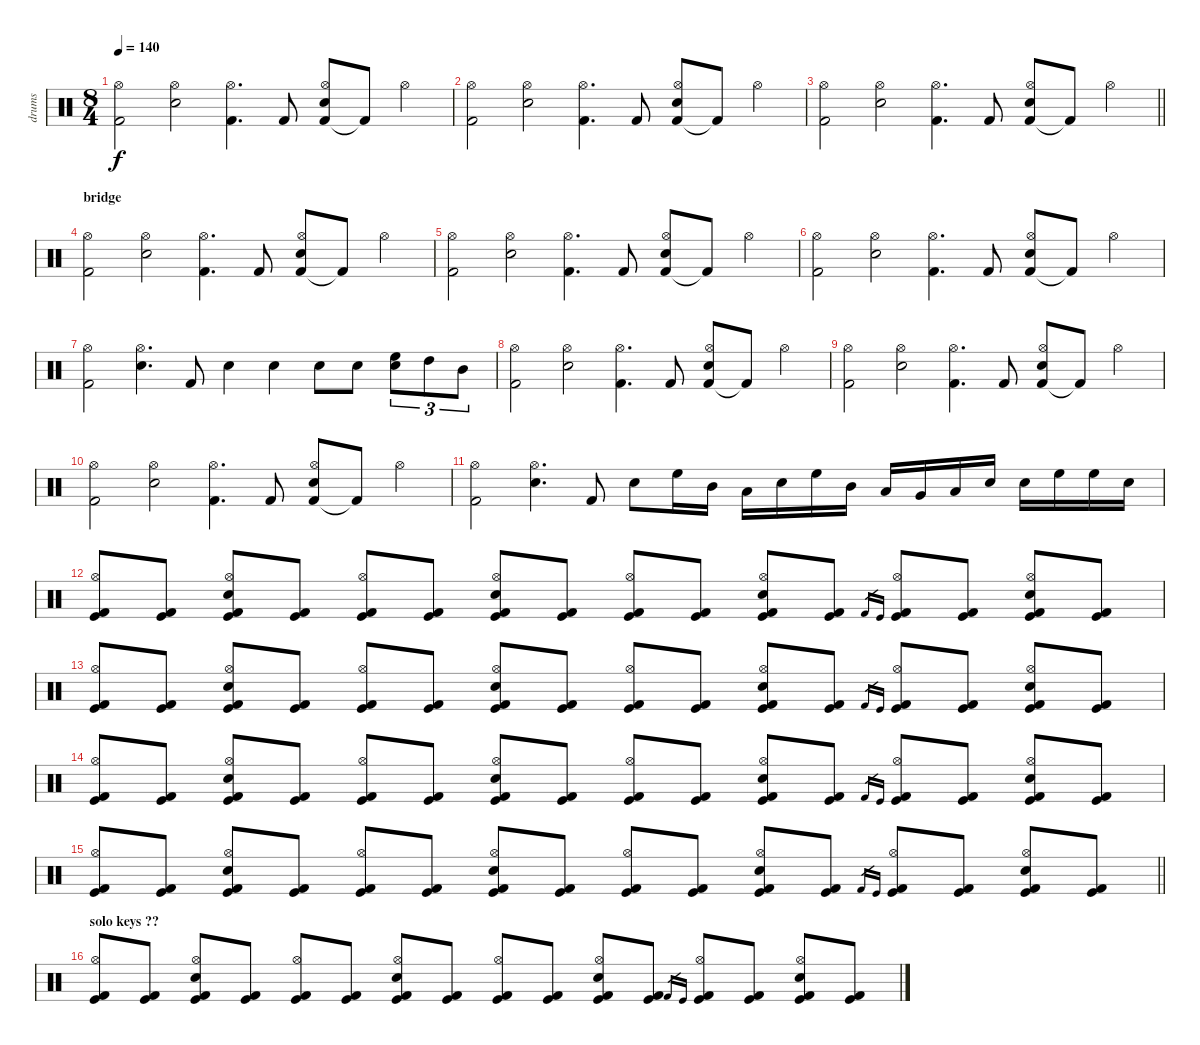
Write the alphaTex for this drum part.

\track ("drums" "drums") {instrument percussion}
\staff {score}
\articulation defaults
\ts (8 4)
\tempo 140
\clef neutral
\ks c
("Kick (hit) 2" "Hi-Hat (open)").2{dy f} ("Electric Snare (hit)" "Hi-Hat (open)").2 ("Kick (hit) 2" "Hi-Hat (open)").4{d} "Kick (hit) 2".8 ("Kick (hit) 2" "Electric Snare (hit)" "Hi-Hat (open)").8 "Kick (hit) 2"{t}.8 "Hi-Hat (open)".4 |
("Kick (hit) 2" "Hi-Hat (open)").2 ("Electric Snare (hit)" "Hi-Hat (open)").2 ("Kick (hit) 2" "Hi-Hat (open)").4{d} "Kick (hit) 2".8 ("Kick (hit) 2" "Electric Snare (hit)" "Hi-Hat (open)").8 "Kick (hit) 2"{t}.8 "Hi-Hat (open)".4 |
\barLineRight lightlight
("Kick (hit) 2" "Hi-Hat (open)").2 ("Electric Snare (hit)" "Hi-Hat (open)").2 ("Kick (hit) 2" "Hi-Hat (open)").4{d} "Kick (hit) 2".8 ("Kick (hit) 2" "Electric Snare (hit)" "Hi-Hat (open)").8 "Kick (hit) 2"{t}.8 "Hi-Hat (open)".4 |
\section ("" "bridge")
("Kick (hit) 2" "Hi-Hat (open)").2 ("Electric Snare (hit)" "Hi-Hat (open)").2 ("Kick (hit) 2" "Hi-Hat (open)").4{d} "Kick (hit) 2".8 ("Kick (hit) 2" "Electric Snare (hit)" "Hi-Hat (open)").8 "Kick (hit) 2"{t}.8 "Hi-Hat (open)".4 |
("Kick (hit) 2" "Hi-Hat (open)").2 ("Electric Snare (hit)" "Hi-Hat (open)").2 ("Kick (hit) 2" "Hi-Hat (open)").4{d} "Kick (hit) 2".8 ("Kick (hit) 2" "Electric Snare (hit)" "Hi-Hat (open)").8 "Kick (hit) 2"{t}.8 "Hi-Hat (open)".4 |
("Kick (hit) 2" "Hi-Hat (open)").2 ("Electric Snare (hit)" "Hi-Hat (open)").2 ("Kick (hit) 2" "Hi-Hat (open)").4{d} "Kick (hit) 2".8 ("Kick (hit) 2" "Electric Snare (hit)" "Hi-Hat (open)").8 "Kick (hit) 2"{t}.8 "Hi-Hat (open)".4 |
("Kick (hit) 2" "Hi-Hat (open)").2 ("Electric Snare (hit)" "Hi-Hat (open)").4{d} "Kick (hit) 2".8 "Snare (hit) 2".4 "Snare (hit) 2".4 "Snare (hit) 2".8 "Snare (hit) 2".8 ("Snare (hit) 2" "High Floor Tom (hit)").8{tu (3 2)} "High Tom (hit)".8{tu (3 2)} "Mid Tom (hit)".8{tu (3 2)} |
("Kick (hit) 2" "Hi-Hat (open)").2 ("Electric Snare (hit)" "Hi-Hat (open)").2 ("Kick (hit) 2" "Hi-Hat (open)").4{d} "Kick (hit) 2".8 ("Kick (hit) 2" "Electric Snare (hit)" "Hi-Hat (open)").8 "Kick (hit) 2"{t}.8 "Hi-Hat (open)".4 |
("Kick (hit) 2" "Hi-Hat (open)").2 ("Electric Snare (hit)" "Hi-Hat (open)").2 ("Kick (hit) 2" "Hi-Hat (open)").4{d} "Kick (hit) 2".8 ("Kick (hit) 2" "Electric Snare (hit)" "Hi-Hat (open)").8 "Kick (hit) 2"{t}.8 "Hi-Hat (open)".4 |
("Kick (hit) 2" "Hi-Hat (open)").2 ("Electric Snare (hit)" "Hi-Hat (open)").2 ("Kick (hit) 2" "Hi-Hat (open)").4{d} "Kick (hit) 2".8 ("Kick (hit) 2" "Electric Snare (hit)" "Hi-Hat (open)").8 "Kick (hit) 2"{t}.8 "Hi-Hat (open)".4 |
("Kick (hit) 2" "Hi-Hat (open)").2 ("Electric Snare (hit)" "Hi-Hat (open)").4{d} "Kick (hit) 2".8 "Snare (hit) 2".8 "High Floor Tom (hit)".16 "Mid Tom (hit)".16 "Low Tom (hit)".16 "Snare (hit) 2".16 "High Floor Tom (hit)".16 "Mid Tom (hit)".16 "Low Tom (hit)".16 "Very Low Tom (hit)".16 "Low Floor Tom (hit)".16 "Snare (hit) 2".16 "Snare (hit) 2".16 "High Floor Tom (hit)".16 "High Floor Tom (hit)".16 "Snare (hit) 2".16 |
("Kick (hit) 2" "Kick (hit)" "Hi-Hat (open)").8 ("Kick (hit) 2" "Kick (hit)").8 ("Kick (hit) 2" "Kick (hit)" "Snare (hit) 2" "Hi-Hat (open)").8 ("Kick (hit) 2" "Kick (hit)").8 ("Kick (hit) 2" "Kick (hit)" "Hi-Hat (open)").8 ("Kick (hit) 2" "Kick (hit)").8 ("Kick (hit) 2" "Kick (hit)" "Snare (hit) 2" "Hi-Hat (open)").8 ("Kick (hit) 2" "Kick (hit)").8 ("Kick (hit) 2" "Kick (hit)" "Hi-Hat (open)").8 ("Kick (hit) 2" "Kick (hit)").8 ("Kick (hit) 2" "Kick (hit)" "Snare (hit) 2" "Hi-Hat (open)").8 ("Kick (hit) 2" "Kick (hit)").8 "Kick (hit) 2".16{gr} "Kick (hit)".16{gr} ("Kick (hit) 2" "Kick (hit)" "Hi-Hat (open)").8 ("Kick (hit) 2" "Kick (hit)").8 ("Kick (hit) 2" "Kick (hit)" "Snare (hit) 2" "Hi-Hat (open)").8 ("Kick (hit) 2" "Kick (hit)").8 |
("Kick (hit) 2" "Kick (hit)" "Hi-Hat (open)").8 ("Kick (hit) 2" "Kick (hit)").8 ("Kick (hit) 2" "Kick (hit)" "Snare (hit) 2" "Hi-Hat (open)").8 ("Kick (hit) 2" "Kick (hit)").8 ("Kick (hit) 2" "Kick (hit)" "Hi-Hat (open)").8 ("Kick (hit) 2" "Kick (hit)").8 ("Kick (hit) 2" "Kick (hit)" "Snare (hit) 2" "Hi-Hat (open)").8 ("Kick (hit) 2" "Kick (hit)").8 ("Kick (hit) 2" "Kick (hit)" "Hi-Hat (open)").8 ("Kick (hit) 2" "Kick (hit)").8 ("Kick (hit) 2" "Kick (hit)" "Snare (hit) 2" "Hi-Hat (open)").8 ("Kick (hit) 2" "Kick (hit)").8 "Kick (hit) 2".16{gr} "Kick (hit)".16{gr} ("Kick (hit) 2" "Kick (hit)" "Hi-Hat (open)").8 ("Kick (hit) 2" "Kick (hit)").8 ("Kick (hit) 2" "Kick (hit)" "Snare (hit) 2" "Hi-Hat (open)").8 ("Kick (hit) 2" "Kick (hit)").8 |
("Kick (hit) 2" "Kick (hit)" "Hi-Hat (open)").8 ("Kick (hit) 2" "Kick (hit)").8 ("Kick (hit) 2" "Kick (hit)" "Snare (hit) 2" "Hi-Hat (open)").8 ("Kick (hit) 2" "Kick (hit)").8 ("Kick (hit) 2" "Kick (hit)" "Hi-Hat (open)").8 ("Kick (hit) 2" "Kick (hit)").8 ("Kick (hit) 2" "Kick (hit)" "Snare (hit) 2" "Hi-Hat (open)").8 ("Kick (hit) 2" "Kick (hit)").8 ("Kick (hit) 2" "Kick (hit)" "Hi-Hat (open)").8 ("Kick (hit) 2" "Kick (hit)").8 ("Kick (hit) 2" "Kick (hit)" "Snare (hit) 2" "Hi-Hat (open)").8 ("Kick (hit) 2" "Kick (hit)").8 "Kick (hit) 2".16{gr} "Kick (hit)".16{gr} ("Kick (hit) 2" "Kick (hit)" "Hi-Hat (open)").8 ("Kick (hit) 2" "Kick (hit)").8 ("Kick (hit) 2" "Kick (hit)" "Snare (hit) 2" "Hi-Hat (open)").8 ("Kick (hit) 2" "Kick (hit)").8 |
\barLineRight lightlight
("Kick (hit) 2" "Kick (hit)" "Hi-Hat (open)").8 ("Kick (hit) 2" "Kick (hit)").8 ("Kick (hit) 2" "Kick (hit)" "Snare (hit) 2" "Hi-Hat (open)").8 ("Kick (hit) 2" "Kick (hit)").8 ("Kick (hit) 2" "Kick (hit)" "Hi-Hat (open)").8 ("Kick (hit) 2" "Kick (hit)").8 ("Kick (hit) 2" "Kick (hit)" "Snare (hit) 2" "Hi-Hat (open)").8 ("Kick (hit) 2" "Kick (hit)").8 ("Kick (hit) 2" "Kick (hit)" "Hi-Hat (open)").8 ("Kick (hit) 2" "Kick (hit)").8 ("Kick (hit) 2" "Kick (hit)" "Snare (hit) 2" "Hi-Hat (open)").8 ("Kick (hit) 2" "Kick (hit)").8 "Kick (hit) 2".16{gr} "Kick (hit)".16{gr} ("Kick (hit) 2" "Kick (hit)" "Hi-Hat (open)").8 ("Kick (hit) 2" "Kick (hit)").8 ("Kick (hit) 2" "Kick (hit)" "Snare (hit) 2" "Hi-Hat (open)").8 ("Kick (hit) 2" "Kick (hit)").8 |
\section ("" "solo keys ??")
("Kick (hit) 2" "Kick (hit)" "Hi-Hat (open)").8 ("Kick (hit) 2" "Kick (hit)").8 ("Kick (hit) 2" "Kick (hit)" "Snare (hit) 2" "Hi-Hat (open)").8 ("Kick (hit) 2" "Kick (hit)").8 ("Kick (hit) 2" "Kick (hit)" "Hi-Hat (open)").8 ("Kick (hit) 2" "Kick (hit)").8 ("Kick (hit) 2" "Kick (hit)" "Snare (hit) 2" "Hi-Hat (open)").8 ("Kick (hit) 2" "Kick (hit)").8 ("Kick (hit) 2" "Kick (hit)" "Hi-Hat (open)").8 ("Kick (hit) 2" "Kick (hit)").8 ("Kick (hit) 2" "Kick (hit)" "Snare (hit) 2" "Hi-Hat (open)").8 ("Kick (hit) 2" "Kick (hit)").8 "Kick (hit) 2".16{gr} "Kick (hit)".16{gr} ("Kick (hit) 2" "Kick (hit)" "Hi-Hat (open)").8 ("Kick (hit) 2" "Kick (hit)").8 ("Kick (hit) 2" "Kick (hit)" "Snare (hit) 2" "Hi-Hat (open)").8 ("Kick (hit) 2" "Kick (hit)").8
